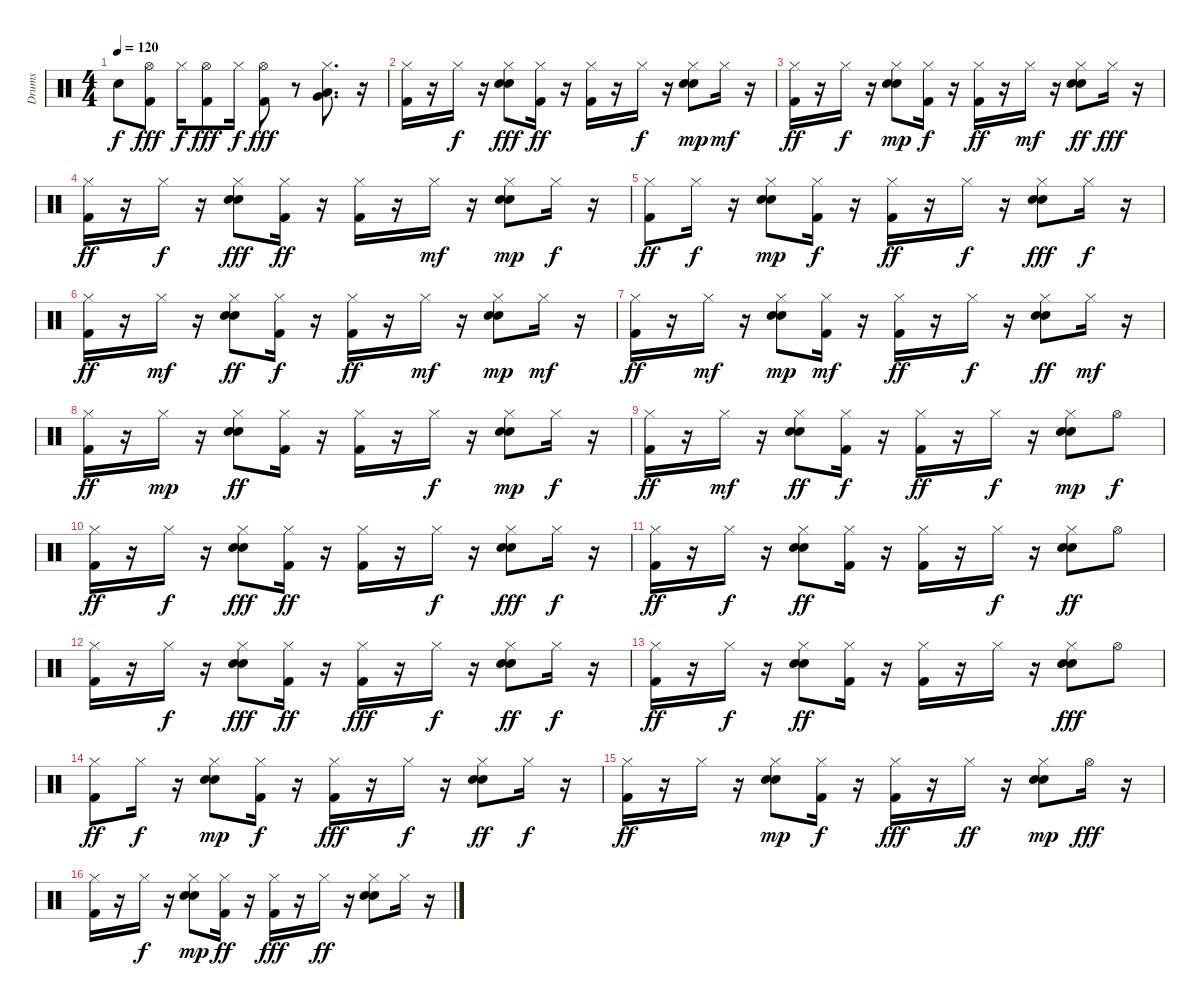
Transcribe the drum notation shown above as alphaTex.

\track ("Drums" "Drums") {instrument percussion}
\staff {score}
\articulation defaults
\ts (4 4)
\tempo 120
\clef neutral
\ks c "Electric Snare (hit)".8{dy f}
("Kick (hit) 2" "Hi-Hat (open)").8{dy fff} "Hi-Hat (closed)".16{dy f} ("Kick (hit) 2" "Hi-Hat (open)").8{dy fff} "Hi-Hat (closed)".16{dy f} ("Hi-Hat (open)" "Kick (hit) 2").8{dy fff} r.8 ("Low Floor Tom (hit)" "Hi-Hat (closed)" "Very Low Tom (hit)").8{d} r.16 |
("Kick (hit) 2" "Hi-Hat (closed)").16 r.16 "Hi-Hat (closed)".16{dy f} r.16 ("Hand Clap (hit)" "Electric Snare (hit)" "Hi-Hat (closed)").8{dy fff} ("Hi-Hat (closed)" "Kick (hit) 2").16{dy ff} r.16 ("Hi-Hat (closed)" "Kick (hit) 2").16 r.16 "Hi-Hat (closed)".16{dy f} r.16 ("Hi-Hat (closed)" "Hand Clap (hit)" "Electric Snare (hit)").8{dy mp} "Hi-Hat (closed)".16{dy mf} r.16 |
("Hi-Hat (closed)" "Kick (hit) 2").16{dy ff} r.16 "Hi-Hat (closed)".16{dy f} r.16 ("Hi-Hat (closed)" "Hand Clap (hit)" "Electric Snare (hit)").8{dy mp} ("Hi-Hat (closed)" "Kick (hit) 2").16{dy f} r.16 ("Hi-Hat (closed)" "Kick (hit) 2").16{dy ff} r.16 "Hi-Hat (closed)".16{dy mf} r.16 ("Electric Snare (hit)" "Hi-Hat (closed)" "Hand Clap (hit)").8{dy ff} "Hi-Hat (closed)".16{dy fff} r.16 |
("Kick (hit) 2" "Hi-Hat (closed)").16{dy ff} r.16 "Hi-Hat (closed)".16{dy f} r.16 ("Hand Clap (hit)" "Electric Snare (hit)" "Hi-Hat (closed)").8{dy fff} ("Hi-Hat (closed)" "Kick (hit) 2").16{dy ff} r.16 ("Hi-Hat (closed)" "Kick (hit) 2").16 r.16 "Hi-Hat (closed)".16{dy mf} r.16 ("Hand Clap (hit)" "Hi-Hat (closed)" "Electric Snare (hit)").8{dy mp} "Hi-Hat (closed)".16{dy f} r.16 |
("Kick (hit) 2" "Hi-Hat (closed)").8{dy ff} "Hi-Hat (closed)".16{dy f} r.16 ("Hand Clap (hit)" "Hi-Hat (closed)" "Electric Snare (hit)").8{dy mp} ("Kick (hit) 2" "Hi-Hat (closed)").16{dy f} r.16 ("Kick (hit) 2" "Hi-Hat (closed)").16{dy ff} r.16 "Hi-Hat (closed)".16{dy f} r.16 ("Electric Snare (hit)" "Hand Clap (hit)" "Hi-Hat (closed)").8{dy fff} "Hi-Hat (closed)".16{dy f} r.16 |
("Hi-Hat (closed)" "Kick (hit) 2").16{dy ff} r.16 "Hi-Hat (closed)".16{dy mf} r.16 ("Electric Snare (hit)" "Hi-Hat (closed)" "Hand Clap (hit)").8{dy ff} ("Kick (hit) 2" "Hi-Hat (closed)").16{dy f} r.16 ("Kick (hit) 2" "Hi-Hat (closed)").16{dy ff} r.16 "Hi-Hat (closed)".16{dy mf} r.16 ("Hi-Hat (closed)" "Hand Clap (hit)" "Electric Snare (hit)").8{dy mp} "Hi-Hat (closed)".16{dy mf} r.16 |
("Hi-Hat (closed)" "Kick (hit) 2").16{dy ff} r.16 "Hi-Hat (closed)".16{dy mf} r.16 ("Hand Clap (hit)" "Hi-Hat (closed)" "Electric Snare (hit)").8{dy mp} ("Hi-Hat (closed)" "Kick (hit) 2").16{dy mf} r.16 ("Hi-Hat (closed)" "Kick (hit) 2").16{dy ff} r.16 "Hi-Hat (closed)".16{dy f} r.16 ("Hi-Hat (closed)" "Electric Snare (hit)" "Hand Clap (hit)").8{dy ff} "Hi-Hat (closed)".16{dy mf} r.16 |
("Hi-Hat (closed)" "Kick (hit) 2").16{dy ff} r.16 "Hi-Hat (closed)".16{dy mp} r.16 ("Electric Snare (hit)" "Hi-Hat (closed)" "Hand Clap (hit)").8{dy ff} ("Kick (hit) 2" "Hi-Hat (closed)").16 r.16 ("Kick (hit) 2" "Hi-Hat (closed)").16 r.16 "Hi-Hat (closed)".16{dy f} r.16 ("Hand Clap (hit)" "Hi-Hat (closed)" "Electric Snare (hit)").8{dy mp} "Hi-Hat (closed)".16{dy f} r.16 |
("Hi-Hat (closed)" "Kick (hit) 2").16{dy ff} r.16 "Hi-Hat (closed)".16{dy mf} r.16 ("Electric Snare (hit)" "Hi-Hat (closed)" "Hand Clap (hit)").8{dy ff} ("Kick (hit) 2" "Hi-Hat (closed)").16{dy f} r.16 ("Hi-Hat (closed)" "Kick (hit) 2").16{dy ff} r.16 "Hi-Hat (closed)".16{dy f} r.16 ("Hand Clap (hit)" "Hi-Hat (closed)" "Electric Snare (hit)").8{dy mp} "Hi-Hat (open)".8{dy f} |
("Kick (hit) 2" "Hi-Hat (closed)").16{dy ff} r.16 "Hi-Hat (closed)".16{dy f} r.16 ("Electric Snare (hit)" "Hand Clap (hit)" "Hi-Hat (closed)").8{dy fff} ("Hi-Hat (closed)" "Kick (hit) 2").16{dy ff} r.16 ("Kick (hit) 2" "Hi-Hat (closed)").16 r.16 "Hi-Hat (closed)".16{dy f} r.16 ("Hand Clap (hit)" "Electric Snare (hit)" "Hi-Hat (closed)").8{dy fff} "Hi-Hat (closed)".16{dy f} r.16 |
("Kick (hit) 2" "Hi-Hat (closed)").16{dy ff} r.16 "Hi-Hat (closed)".16{dy f} r.16 ("Hi-Hat (closed)" "Electric Snare (hit)" "Hand Clap (hit)").8{dy ff} ("Kick (hit) 2" "Hi-Hat (closed)").16 r.16 ("Hi-Hat (closed)" "Kick (hit) 2").16 r.16 "Hi-Hat (closed)".16{dy f} r.16 ("Hi-Hat (closed)" "Electric Snare (hit)" "Hand Clap (hit)").8{dy ff} "Hi-Hat (open)".8 |
("Hi-Hat (closed)" "Kick (hit) 2").16 r.16 "Hi-Hat (closed)".16{dy f} r.16 ("Hand Clap (hit)" "Electric Snare (hit)" "Hi-Hat (closed)").8{dy fff} ("Kick (hit) 2" "Hi-Hat (closed)").16{dy ff} r.16 ("Kick (hit) 2" "Hi-Hat (closed)").16{dy fff} r.16 "Hi-Hat (closed)".16{dy f} r.16 ("Electric Snare (hit)" "Hi-Hat (closed)" "Hand Clap (hit)").8{dy ff} "Hi-Hat (closed)".16{dy f} r.16 |
("Hi-Hat (closed)" "Kick (hit) 2").16{dy ff} r.16 "Hi-Hat (closed)".16{dy f} r.16 ("Hi-Hat (closed)" "Electric Snare (hit)" "Hand Clap (hit)").8{dy ff} ("Hi-Hat (closed)" "Kick (hit) 2").16 r.16 ("Kick (hit) 2" "Hi-Hat (closed)").16 r.16 "Hi-Hat (closed)".16 r.16 ("Electric Snare (hit)" "Hand Clap (hit)" "Hi-Hat (closed)").8{dy fff} "Hi-Hat (open)".8 |
("Hi-Hat (closed)" "Kick (hit) 2").8{dy ff} "Hi-Hat (closed)".16{dy f} r.16 ("Hand Clap (hit)" "Hi-Hat (closed)" "Electric Snare (hit)").8{dy mp} ("Kick (hit) 2" "Hi-Hat (closed)").16{dy f} r.16 ("Kick (hit) 2" "Hi-Hat (closed)").16{dy fff} r.16 "Hi-Hat (closed)".16{dy f} r.16 ("Electric Snare (hit)" "Hi-Hat (closed)" "Hand Clap (hit)").8{dy ff} "Hi-Hat (closed)".16{dy f} r.16 |
("Hi-Hat (closed)" "Kick (hit) 2").16{dy ff} r.16 "Hi-Hat (closed)".16 r.16 ("Hand Clap (hit)" "Hi-Hat (closed)" "Electric Snare (hit)").8{dy mp} ("Hi-Hat (closed)" "Kick (hit) 2").16{dy f} r.16 ("Kick (hit) 2" "Hi-Hat (closed)").16{dy fff} r.16 "Hi-Hat (closed)".16{dy ff} r.16 ("Hi-Hat (closed)" "Hand Clap (hit)" "Electric Snare (hit)").8{dy mp} "Hi-Hat (open)".16{dy fff} r.16 |
("Hi-Hat (closed)" "Kick (hit) 2").16 r.16 "Hi-Hat (closed)".16{dy f} r.16 ("Hand Clap (hit)" "Hi-Hat (closed)" "Electric Snare (hit)").8{dy mp} ("Kick (hit) 2" "Hi-Hat (closed)").16{dy ff} r.16 ("Kick (hit) 2" "Hi-Hat (closed)").16{dy fff} r.16 "Hi-Hat (closed)".16{dy ff} r.16 ("Electric Snare (hit)" "Hi-Hat (closed)" "Hand Clap (hit)").8 "Hi-Hat (closed)".16 r.16
